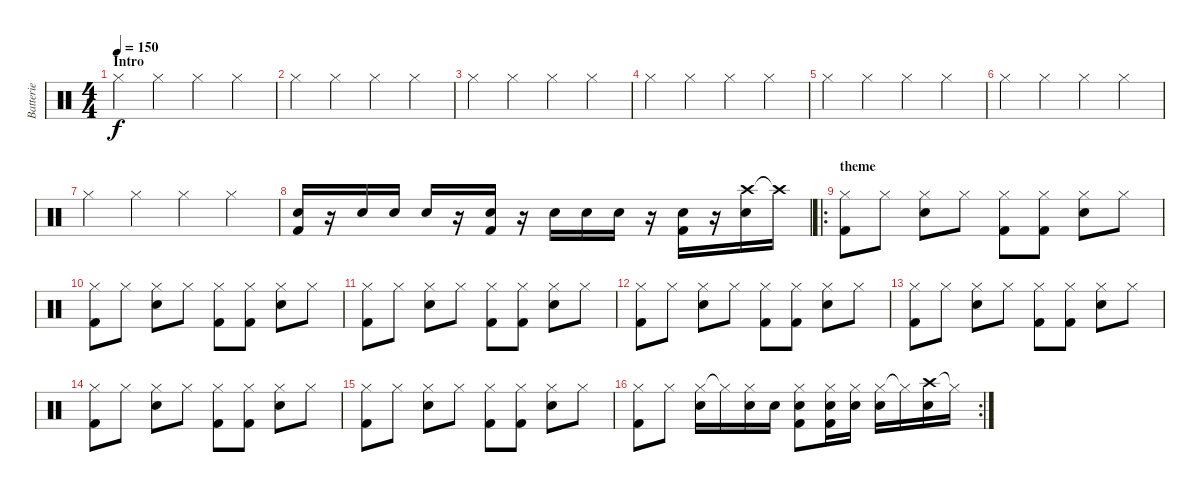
\track ("Batterie" "Batterie") {instrument percussion}
\staff {score}
\articulation defaults
\ts (4 4)
\section ("" "Intro")
\tempo 150
\clef neutral
\ks c "Hi-Hat (closed)".4{dy f} "Hi-Hat (closed)".4 "Hi-Hat (closed)".4 "Hi-Hat (closed)".4
|
"Hi-Hat (closed)".4 "Hi-Hat (closed)".4 "Hi-Hat (closed)".4 "Hi-Hat (closed)".4 |
"Hi-Hat (closed)".4 "Hi-Hat (closed)".4 "Hi-Hat (closed)".4 "Hi-Hat (closed)".4 |
"Hi-Hat (closed)".4 "Hi-Hat (closed)".4 "Hi-Hat (closed)".4 "Hi-Hat (closed)".4 |
"Hi-Hat (closed)".4 "Hi-Hat (closed)".4 "Hi-Hat (closed)".4 "Hi-Hat (closed)".4 |
"Hi-Hat (closed)".4 "Hi-Hat (closed)".4 "Hi-Hat (closed)".4 "Hi-Hat (closed)".4 |
"Hi-Hat (closed)".4 "Hi-Hat (closed)".4 "Hi-Hat (closed)".4 "Hi-Hat (closed)".4 |
("Electric Snare (hit)" "Kick (hit) 2").16 r.16 "Electric Snare (hit)".16 "Electric Snare (hit)".16 "Electric Snare (hit)".16 r.16 ("Electric Snare (hit)" "Kick (hit) 2").16 r.16 "Electric Snare (hit)".16 "Electric Snare (hit)".16 "Electric Snare (hit)".16 r.16 ("Electric Snare (hit)" "Kick (hit) 2").16 r.16 ("Crash high (hit)" "Electric Snare (hit)").16 "Crash high (hit)"{t}.16 |
\ro
\section ("" "theme")
("Hi-Hat (closed)" "Kick (hit) 2").8 "Hi-Hat (closed)".8 ("Hi-Hat (closed)" "Electric Snare (hit)").8 "Hi-Hat (closed)".8 ("Hi-Hat (closed)" "Kick (hit) 2").8 ("Hi-Hat (closed)" "Kick (hit) 2").8 ("Hi-Hat (closed)" "Electric Snare (hit)").8 "Hi-Hat (closed)".8 |
("Hi-Hat (closed)" "Kick (hit) 2").8 "Hi-Hat (closed)".8 ("Hi-Hat (closed)" "Electric Snare (hit)").8 "Hi-Hat (closed)".8 ("Hi-Hat (closed)" "Kick (hit) 2").8 ("Hi-Hat (closed)" "Kick (hit) 2").8 ("Hi-Hat (closed)" "Electric Snare (hit)").8 "Hi-Hat (closed)".8 |
("Hi-Hat (closed)" "Kick (hit) 2").8 "Hi-Hat (closed)".8 ("Hi-Hat (closed)" "Electric Snare (hit)").8 "Hi-Hat (closed)".8 ("Hi-Hat (closed)" "Kick (hit) 2").8 ("Hi-Hat (closed)" "Kick (hit) 2").8 ("Hi-Hat (closed)" "Electric Snare (hit)").8 "Hi-Hat (closed)".8 |
("Hi-Hat (closed)" "Kick (hit) 2").8 "Hi-Hat (closed)".8 ("Hi-Hat (closed)" "Electric Snare (hit)").8 "Hi-Hat (closed)".8 ("Hi-Hat (closed)" "Kick (hit) 2").8 ("Hi-Hat (closed)" "Kick (hit) 2").8 ("Hi-Hat (closed)" "Electric Snare (hit)").8 "Hi-Hat (closed)".8 |
("Hi-Hat (closed)" "Kick (hit) 2").8 "Hi-Hat (closed)".8 ("Hi-Hat (closed)" "Electric Snare (hit)").8 "Hi-Hat (closed)".8 ("Hi-Hat (closed)" "Kick (hit) 2").8 ("Hi-Hat (closed)" "Kick (hit) 2").8 ("Hi-Hat (closed)" "Electric Snare (hit)").8 "Hi-Hat (closed)".8 |
("Hi-Hat (closed)" "Kick (hit) 2").8 "Hi-Hat (closed)".8 ("Hi-Hat (closed)" "Electric Snare (hit)").8 "Hi-Hat (closed)".8 ("Hi-Hat (closed)" "Kick (hit) 2").8 ("Hi-Hat (closed)" "Kick (hit) 2").8 ("Hi-Hat (closed)" "Electric Snare (hit)").8 "Hi-Hat (closed)".8 |
("Hi-Hat (closed)" "Kick (hit) 2").8 "Hi-Hat (closed)".8 ("Hi-Hat (closed)" "Electric Snare (hit)").8 "Hi-Hat (closed)".8 ("Hi-Hat (closed)" "Kick (hit) 2").8 ("Hi-Hat (closed)" "Kick (hit) 2").8 ("Hi-Hat (closed)" "Electric Snare (hit)").8 "Hi-Hat (closed)".8 |
\rc 2
("Hi-Hat (closed)" "Kick (hit) 2").8 "Hi-Hat (closed)".8 ("Hi-Hat (closed)" "Electric Snare (hit)").16 "Hi-Hat (closed)"{t}.16 ("Hi-Hat (closed)" "Electric Snare (hit)").16 "Electric Snare (hit)".16 ("Hi-Hat (closed)" "Electric Snare (hit)" "Kick (hit) 2").8 ("Hi-Hat (closed)" "Electric Snare (hit)" "Kick (hit) 2").16 ("Hi-Hat (closed)" "Electric Snare (hit)").16 ("Hi-Hat (closed)" "Electric Snare (hit)").16 "Hi-Hat (closed)"{t}.16 ("Crash high (hit)" "Electric Snare (hit)").16 "Hi-Hat (closed)"{t}.16
